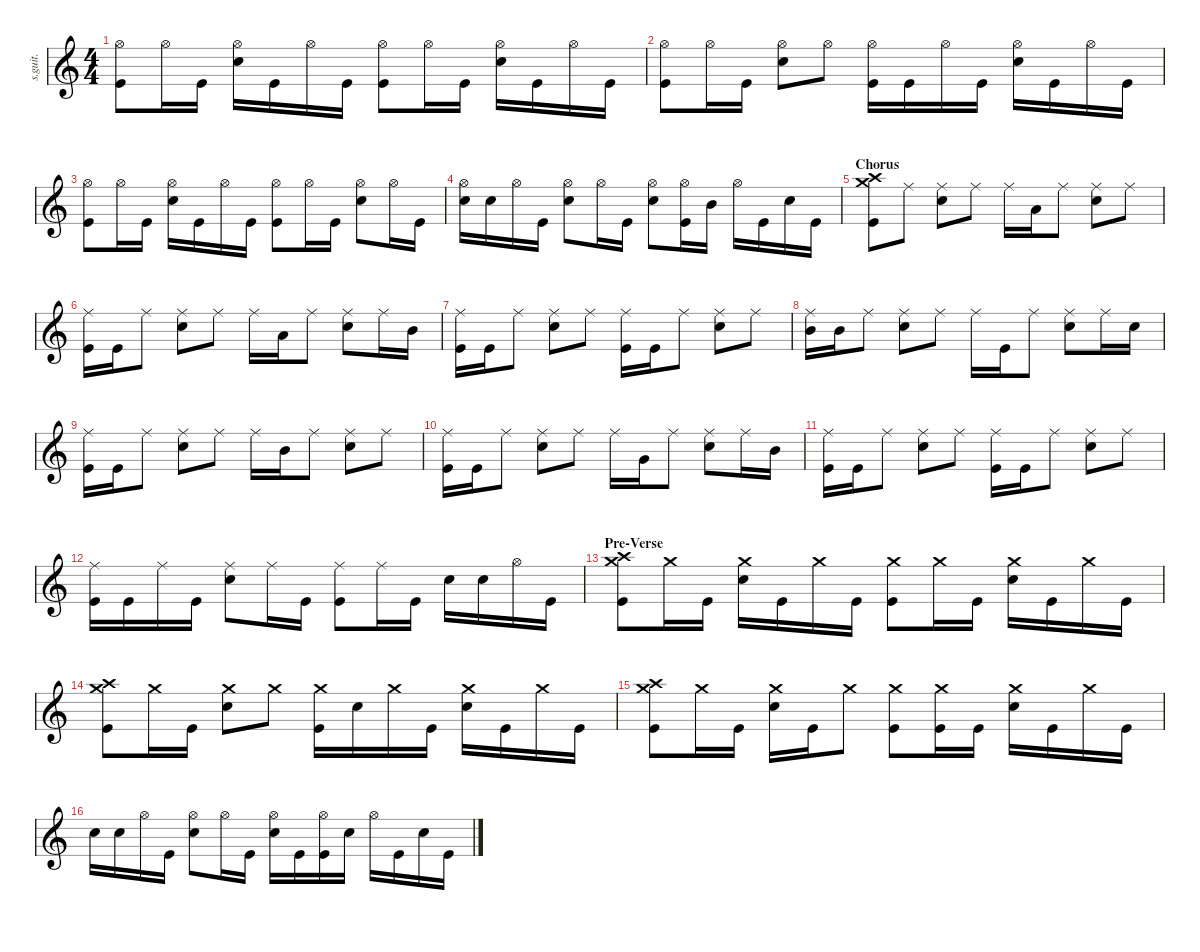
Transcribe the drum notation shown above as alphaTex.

\defaultSystemsLayout 4
\hideDynamics
\bracketExtendMode nobrackets
\track ("Abe Cunningham" "s.guit.") {instrument percussion}
\staff {score}
\articulation defaults
\ts (4 4)
\tempo (93 hide)
\clef g2
\ks c
("Kick (hit)" "Hi-Hat (open)").8{lyrics (0 "") lyrics (1 "") lyrics (2 "") lyrics (3 "") lyrics (4 "") dy fff} "Hi-Hat (open)".16{lyrics (0 "") lyrics (1 "") lyrics (2 "") lyrics (3 "") lyrics (4 "")} "Kick (hit)".16{lyrics (0 "") lyrics (1 "") lyrics (2 "") lyrics (3 "") lyrics (4 "")} ("Snare (hit) 2" "Hi-Hat (open)").16{lyrics (0 "") lyrics (1 "") lyrics (2 "") lyrics (3 "") lyrics (4 "")} "Kick (hit)".16{lyrics (0 "") lyrics (1 "") lyrics (2 "") lyrics (3 "") lyrics (4 "")} "Hi-Hat (open)".16{lyrics (0 "") lyrics (1 "") lyrics (2 "") lyrics (3 "") lyrics (4 "")} "Kick (hit)".16{lyrics (0 "") lyrics (1 "") lyrics (2 "") lyrics (3 "") lyrics (4 "")} ("Hi-Hat (open)" "Kick (hit)").8{lyrics (0 "") lyrics (1 "") lyrics (2 "") lyrics (3 "") lyrics (4 "")} "Hi-Hat (open)".16{lyrics (0 "") lyrics (1 "") lyrics (2 "") lyrics (3 "") lyrics (4 "")} "Kick (hit)".16{lyrics (0 "") lyrics (1 "") lyrics (2 "") lyrics (3 "") lyrics (4 "")} ("Hi-Hat (open)" "Snare (hit) 2").16{lyrics (0 "") lyrics (1 "") lyrics (2 "") lyrics (3 "") lyrics (4 "")} "Kick (hit)".16{lyrics (0 "") lyrics (1 "") lyrics (2 "") lyrics (3 "") lyrics (4 "")} "Hi-Hat (open)".16{lyrics (0 "") lyrics (1 "") lyrics (2 "") lyrics (3 "") lyrics (4 "")} "Kick (hit)".16{lyrics (0 "") lyrics (1 "") lyrics (2 "") lyrics (3 "") lyrics (4 "")} |
("Kick (hit)" "Hi-Hat (open)").8{lyrics (0 "") lyrics (1 "") lyrics (2 "") lyrics (3 "") lyrics (4 "")} "Hi-Hat (open)".16{lyrics (0 "") lyrics (1 "") lyrics (2 "") lyrics (3 "") lyrics (4 "")} "Kick (hit)".16{lyrics (0 "") lyrics (1 "") lyrics (2 "") lyrics (3 "") lyrics (4 "")} ("Snare (hit) 2" "Hi-Hat (open)").8{lyrics (0 "") lyrics (1 "") lyrics (2 "") lyrics (3 "") lyrics (4 "")} "Hi-Hat (open)".8{lyrics (0 "") lyrics (1 "") lyrics (2 "") lyrics (3 "") lyrics (4 "")} ("Hi-Hat (open)" "Kick (hit)").16{lyrics (0 "") lyrics (1 "") lyrics (2 "") lyrics (3 "") lyrics (4 "")} "Kick (hit)".16{lyrics (0 "") lyrics (1 "") lyrics (2 "") lyrics (3 "") lyrics (4 "")} "Hi-Hat (open)".16{lyrics (0 "") lyrics (1 "") lyrics (2 "") lyrics (3 "") lyrics (4 "")} "Kick (hit)".16{lyrics (0 "") lyrics (1 "") lyrics (2 "") lyrics (3 "") lyrics (4 "")} ("Hi-Hat (open)" "Snare (hit) 2").16{lyrics (0 "") lyrics (1 "") lyrics (2 "") lyrics (3 "") lyrics (4 "")} "Kick (hit)".16{lyrics (0 "") lyrics (1 "") lyrics (2 "") lyrics (3 "") lyrics (4 "")} "Hi-Hat (open)".16{lyrics (0 "") lyrics (1 "") lyrics (2 "") lyrics (3 "") lyrics (4 "")} "Kick (hit)".16{lyrics (0 "") lyrics (1 "") lyrics (2 "") lyrics (3 "") lyrics (4 "")} |
("Kick (hit)" "Hi-Hat (open)").8{lyrics (0 "") lyrics (1 "") lyrics (2 "") lyrics (3 "") lyrics (4 "")} "Hi-Hat (open)".16{lyrics (0 "") lyrics (1 "") lyrics (2 "") lyrics (3 "") lyrics (4 "")} "Kick (hit)".16{lyrics (0 "") lyrics (1 "") lyrics (2 "") lyrics (3 "") lyrics (4 "")} ("Snare (hit) 2" "Hi-Hat (open)").16{lyrics (0 "") lyrics (1 "") lyrics (2 "") lyrics (3 "") lyrics (4 "")} "Kick (hit)".16{lyrics (0 "") lyrics (1 "") lyrics (2 "") lyrics (3 "") lyrics (4 "")} "Hi-Hat (open)".16{lyrics (0 "") lyrics (1 "") lyrics (2 "") lyrics (3 "") lyrics (4 "")} "Kick (hit)".16{lyrics (0 "") lyrics (1 "") lyrics (2 "") lyrics (3 "") lyrics (4 "")} ("Hi-Hat (open)" "Kick (hit)").8{lyrics (0 "") lyrics (1 "") lyrics (2 "") lyrics (3 "") lyrics (4 "")} "Hi-Hat (open)".16{lyrics (0 "") lyrics (1 "") lyrics (2 "") lyrics (3 "") lyrics (4 "")} "Kick (hit)".16{lyrics (0 "") lyrics (1 "") lyrics (2 "") lyrics (3 "") lyrics (4 "")} ("Hi-Hat (open)" "Snare (hit) 2").8{lyrics (0 "") lyrics (1 "") lyrics (2 "") lyrics (3 "") lyrics (4 "")} "Hi-Hat (open)".16{lyrics (0 "") lyrics (1 "") lyrics (2 "") lyrics (3 "") lyrics (4 "")} "Kick (hit)".16{lyrics (0 "") lyrics (1 "") lyrics (2 "") lyrics (3 "") lyrics (4 "")} |
("Snare (hit) 2" "Hi-Hat (open)").16{lyrics (0 "") lyrics (1 "") lyrics (2 "") lyrics (3 "") lyrics (4 "")} "Snare (hit) 2".16{lyrics (0 "") lyrics (1 "") lyrics (2 "") lyrics (3 "") lyrics (4 "")} "Hi-Hat (open)".16{lyrics (0 "") lyrics (1 "") lyrics (2 "") lyrics (3 "") lyrics (4 "")} "Kick (hit)".16{lyrics (0 "") lyrics (1 "") lyrics (2 "") lyrics (3 "") lyrics (4 "")} ("Hi-Hat (open)" "Snare (hit) 2").8{lyrics (0 "") lyrics (1 "") lyrics (2 "") lyrics (3 "") lyrics (4 "")} "Hi-Hat (open)".16{lyrics (0 "") lyrics (1 "") lyrics (2 "") lyrics (3 "") lyrics (4 "")} "Kick (hit)".16{lyrics (0 "") lyrics (1 "") lyrics (2 "") lyrics (3 "") lyrics (4 "")} ("Hi-Hat (open)" "Snare (hit) 2").8{lyrics (0 "") lyrics (1 "") lyrics (2 "") lyrics (3 "") lyrics (4 "")} ("Kick (hit)" "Hi-Hat (open)").16{lyrics (0 "") lyrics (1 "") lyrics (2 "") lyrics (3 "") lyrics (4 "")} "Mid Tom (hit)".16{lyrics (0 "") lyrics (1 "") lyrics (2 "") lyrics (3 "") lyrics (4 "")} "Hi-Hat (open)".16{lyrics (0 "") lyrics (1 "") lyrics (2 "") lyrics (3 "") lyrics (4 "")} "Kick (hit)".16{lyrics (0 "") lyrics (1 "") lyrics (2 "") lyrics (3 "") lyrics (4 "")} "Snare (hit) 2".16{lyrics (0 "") lyrics (1 "") lyrics (2 "") lyrics (3 "") lyrics (4 "")} "Kick (hit)".16{lyrics (0 "") lyrics (1 "") lyrics (2 "") lyrics (3 "") lyrics (4 "")} |
\section ("" "Chorus")
("Kick (hit)" "Crash high (hit)" "Crash medium (hit)").8{lyrics (0 "") lyrics (1 "") lyrics (2 "") lyrics (3 "") lyrics (4 "")} "Ride (middle)".8{lyrics (0 "") lyrics (1 "") lyrics (2 "") lyrics (3 "") lyrics (4 "")} ("Ride (middle)" "Snare (hit) 2").8{lyrics (0 "") lyrics (1 "") lyrics (2 "") lyrics (3 "") lyrics (4 "")} "Ride (middle)".8{lyrics (0 "") lyrics (1 "") lyrics (2 "") lyrics (3 "") lyrics (4 "")} "Ride (middle)".16{lyrics (0 "") lyrics (1 "") lyrics (2 "") lyrics (3 "") lyrics (4 "")} "Low Tom (hit)".16{lyrics (0 "") lyrics (1 "") lyrics (2 "") lyrics (3 "") lyrics (4 "")} "Ride (middle)".8{lyrics (0 "") lyrics (1 "") lyrics (2 "") lyrics (3 "") lyrics (4 "")} ("Ride (middle)" "Snare (hit) 2").8{lyrics (0 "") lyrics (1 "") lyrics (2 "") lyrics (3 "") lyrics (4 "")} "Ride (middle)".8{lyrics (0 "") lyrics (1 "") lyrics (2 "") lyrics (3 "") lyrics (4 "")} |
("Kick (hit)" "Ride (middle)").16{lyrics (0 "") lyrics (1 "") lyrics (2 "") lyrics (3 "") lyrics (4 "")} "Kick (hit)".16{lyrics (0 "") lyrics (1 "") lyrics (2 "") lyrics (3 "") lyrics (4 "")} "Ride (middle)".8{lyrics (0 "") lyrics (1 "") lyrics (2 "") lyrics (3 "") lyrics (4 "")} ("Ride (middle)" "Snare (hit) 2").8{lyrics (0 "") lyrics (1 "") lyrics (2 "") lyrics (3 "") lyrics (4 "")} "Ride (middle)".8{lyrics (0 "") lyrics (1 "") lyrics (2 "") lyrics (3 "") lyrics (4 "")} "Ride (middle)".16{lyrics (0 "") lyrics (1 "") lyrics (2 "") lyrics (3 "") lyrics (4 "")} "Low Tom (hit)".16{lyrics (0 "") lyrics (1 "") lyrics (2 "") lyrics (3 "") lyrics (4 "")} "Ride (middle)".8{lyrics (0 "") lyrics (1 "") lyrics (2 "") lyrics (3 "") lyrics (4 "")} ("Ride (middle)" "Snare (hit) 2").8{lyrics (0 "") lyrics (1 "") lyrics (2 "") lyrics (3 "") lyrics (4 "")} "Ride (middle)".16{lyrics (0 "") lyrics (1 "") lyrics (2 "") lyrics (3 "") lyrics (4 "")} "Mid Tom (hit)".16{lyrics (0 "") lyrics (1 "") lyrics (2 "") lyrics (3 "") lyrics (4 "")} |
("Kick (hit)" "Ride (middle)").16{lyrics (0 "") lyrics (1 "") lyrics (2 "") lyrics (3 "") lyrics (4 "")} "Kick (hit)".16{lyrics (0 "") lyrics (1 "") lyrics (2 "") lyrics (3 "") lyrics (4 "")} "Ride (middle)".8{lyrics (0 "") lyrics (1 "") lyrics (2 "") lyrics (3 "") lyrics (4 "")} ("Ride (middle)" "Snare (hit) 2").8{lyrics (0 "") lyrics (1 "") lyrics (2 "") lyrics (3 "") lyrics (4 "")} "Ride (middle)".8{lyrics (0 "") lyrics (1 "") lyrics (2 "") lyrics (3 "") lyrics (4 "")} ("Ride (middle)" "Kick (hit)").16{lyrics (0 "") lyrics (1 "") lyrics (2 "") lyrics (3 "") lyrics (4 "")} "Kick (hit)".16{lyrics (0 "") lyrics (1 "") lyrics (2 "") lyrics (3 "") lyrics (4 "")} "Ride (middle)".8{lyrics (0 "") lyrics (1 "") lyrics (2 "") lyrics (3 "") lyrics (4 "")} ("Ride (middle)" "Snare (hit) 2").8{lyrics (0 "") lyrics (1 "") lyrics (2 "") lyrics (3 "") lyrics (4 "")} "Ride (middle)".8{lyrics (0 "") lyrics (1 "") lyrics (2 "") lyrics (3 "") lyrics (4 "")} |
("Ride (middle)" "Mid Tom (hit)").16{lyrics (0 "") lyrics (1 "") lyrics (2 "") lyrics (3 "") lyrics (4 "")} "Mid Tom (hit)".16{lyrics (0 "") lyrics (1 "") lyrics (2 "") lyrics (3 "") lyrics (4 "")} "Ride (middle)".8{lyrics (0 "") lyrics (1 "") lyrics (2 "") lyrics (3 "") lyrics (4 "")} ("Ride (middle)" "Snare (hit) 2").8{lyrics (0 "") lyrics (1 "") lyrics (2 "") lyrics (3 "") lyrics (4 "")} "Ride (middle)".8{lyrics (0 "") lyrics (1 "") lyrics (2 "") lyrics (3 "") lyrics (4 "")} "Ride (middle)".16{lyrics (0 "") lyrics (1 "") lyrics (2 "") lyrics (3 "") lyrics (4 "")} "Kick (hit)".16{lyrics (0 "") lyrics (1 "") lyrics (2 "") lyrics (3 "") lyrics (4 "")} "Ride (middle)".8{lyrics (0 "") lyrics (1 "") lyrics (2 "") lyrics (3 "") lyrics (4 "")} ("Ride (middle)" "Snare (hit) 2").8{lyrics (0 "") lyrics (1 "") lyrics (2 "") lyrics (3 "") lyrics (4 "")} "Ride (middle)".16{lyrics (0 "") lyrics (1 "") lyrics (2 "") lyrics (3 "") lyrics (4 "")} "Snare (hit) 2".16{lyrics (0 "") lyrics (1 "") lyrics (2 "") lyrics (3 "") lyrics (4 "")} |
("Kick (hit)" "Ride (middle)").16{lyrics (0 "") lyrics (1 "") lyrics (2 "") lyrics (3 "") lyrics (4 "")} "Kick (hit)".16{lyrics (0 "") lyrics (1 "") lyrics (2 "") lyrics (3 "") lyrics (4 "")} "Ride (middle)".8{lyrics (0 "") lyrics (1 "") lyrics (2 "") lyrics (3 "") lyrics (4 "")} ("Ride (middle)" "Snare (hit) 2").8{lyrics (0 "") lyrics (1 "") lyrics (2 "") lyrics (3 "") lyrics (4 "")} "Ride (middle)".8{lyrics (0 "") lyrics (1 "") lyrics (2 "") lyrics (3 "") lyrics (4 "")} "Ride (middle)".16{lyrics (0 "") lyrics (1 "") lyrics (2 "") lyrics (3 "") lyrics (4 "")} "Mid Tom (hit)".16{lyrics (0 "") lyrics (1 "") lyrics (2 "") lyrics (3 "") lyrics (4 "")} "Ride (middle)".8{lyrics (0 "") lyrics (1 "") lyrics (2 "") lyrics (3 "") lyrics (4 "")} ("Ride (middle)" "Snare (hit) 2").8{lyrics (0 "") lyrics (1 "") lyrics (2 "") lyrics (3 "") lyrics (4 "")} "Ride (middle)".8{lyrics (0 "") lyrics (1 "") lyrics (2 "") lyrics (3 "") lyrics (4 "")} |
("Kick (hit)" "Ride (middle)").16{lyrics (0 "") lyrics (1 "") lyrics (2 "") lyrics (3 "") lyrics (4 "")} "Kick (hit)".16{lyrics (0 "") lyrics (1 "") lyrics (2 "") lyrics (3 "") lyrics (4 "")} "Ride (middle)".8{lyrics (0 "") lyrics (1 "") lyrics (2 "") lyrics (3 "") lyrics (4 "")} ("Ride (middle)" "Snare (hit) 2").8{lyrics (0 "") lyrics (1 "") lyrics (2 "") lyrics (3 "") lyrics (4 "")} "Ride (middle)".8{lyrics (0 "") lyrics (1 "") lyrics (2 "") lyrics (3 "") lyrics (4 "")} "Ride (middle)".16{lyrics (0 "") lyrics (1 "") lyrics (2 "") lyrics (3 "") lyrics (4 "")} "Very Low Tom (hit)".16{lyrics (0 "") lyrics (1 "") lyrics (2 "") lyrics (3 "") lyrics (4 "")} "Ride (middle)".8{lyrics (0 "") lyrics (1 "") lyrics (2 "") lyrics (3 "") lyrics (4 "")} ("Ride (middle)" "Snare (hit) 2").8{lyrics (0 "") lyrics (1 "") lyrics (2 "") lyrics (3 "") lyrics (4 "")} "Ride (middle)".16{lyrics (0 "") lyrics (1 "") lyrics (2 "") lyrics (3 "") lyrics (4 "")} "Mid Tom (hit)".16{lyrics (0 "") lyrics (1 "") lyrics (2 "") lyrics (3 "") lyrics (4 "")} |
("Kick (hit)" "Ride (middle)").16{lyrics (0 "") lyrics (1 "") lyrics (2 "") lyrics (3 "") lyrics (4 "")} "Kick (hit)".16{lyrics (0 "") lyrics (1 "") lyrics (2 "") lyrics (3 "") lyrics (4 "")} "Ride (middle)".8{lyrics (0 "") lyrics (1 "") lyrics (2 "") lyrics (3 "") lyrics (4 "")} ("Ride (middle)" "Snare (hit) 2").8{lyrics (0 "") lyrics (1 "") lyrics (2 "") lyrics (3 "") lyrics (4 "")} "Ride (middle)".8{lyrics (0 "") lyrics (1 "") lyrics (2 "") lyrics (3 "") lyrics (4 "")} ("Ride (middle)" "Kick (hit)").16{lyrics (0 "") lyrics (1 "") lyrics (2 "") lyrics (3 "") lyrics (4 "")} "Kick (hit)".16{lyrics (0 "") lyrics (1 "") lyrics (2 "") lyrics (3 "") lyrics (4 "")} "Ride (middle)".8{lyrics (0 "") lyrics (1 "") lyrics (2 "") lyrics (3 "") lyrics (4 "")} ("Ride (middle)" "Snare (hit) 2").8{lyrics (0 "") lyrics (1 "") lyrics (2 "") lyrics (3 "") lyrics (4 "")} "Ride (middle)".8{lyrics (0 "") lyrics (1 "") lyrics (2 "") lyrics (3 "") lyrics (4 "")} |
("Kick (hit)" "Ride (middle)").16{lyrics (0 "") lyrics (1 "") lyrics (2 "") lyrics (3 "") lyrics (4 "")} "Kick (hit)".16{lyrics (0 "") lyrics (1 "") lyrics (2 "") lyrics (3 "") lyrics (4 "")} "Ride (middle)".16{lyrics (0 "") lyrics (1 "") lyrics (2 "") lyrics (3 "") lyrics (4 "")} "Kick (hit)".16{lyrics (0 "") lyrics (1 "") lyrics (2 "") lyrics (3 "") lyrics (4 "")} ("Ride (middle)" "Snare (hit) 2").8{lyrics (0 "") lyrics (1 "") lyrics (2 "") lyrics (3 "") lyrics (4 "")} "Ride (middle)".16{lyrics (0 "") lyrics (1 "") lyrics (2 "") lyrics (3 "") lyrics (4 "")} "Kick (hit)".16{lyrics (0 "") lyrics (1 "") lyrics (2 "") lyrics (3 "") lyrics (4 "")} ("Ride (middle)" "Kick (hit)").8{lyrics (0 "") lyrics (1 "") lyrics (2 "") lyrics (3 "") lyrics (4 "")} "Ride (middle)".16{lyrics (0 "") lyrics (1 "") lyrics (2 "") lyrics (3 "") lyrics (4 "")} "Kick (hit)".16{lyrics (0 "") lyrics (1 "") lyrics (2 "") lyrics (3 "") lyrics (4 "")} "Snare (hit) 2".16{lyrics (0 "") lyrics (1 "") lyrics (2 "") lyrics (3 "") lyrics (4 "")} "Snare (hit) 2".16{lyrics (0 "") lyrics (1 "") lyrics (2 "") lyrics (3 "") lyrics (4 "")} "Hi-Hat (open)".16{lyrics (0 "") lyrics (1 "") lyrics (2 "") lyrics (3 "") lyrics (4 "")} "Kick (hit)".16{lyrics (0 "") lyrics (1 "") lyrics (2 "") lyrics (3 "") lyrics (4 "")} |
\section ("" "Pre-Verse")
("Kick (hit)" "Crash high (hit)" "Crash medium (hit)").8{lyrics (0 "") lyrics (1 "") lyrics (2 "") lyrics (3 "") lyrics (4 "")} "Crash medium (hit)".16{lyrics (0 "") lyrics (1 "") lyrics (2 "") lyrics (3 "") lyrics (4 "")} "Kick (hit)".16{lyrics (0 "") lyrics (1 "") lyrics (2 "") lyrics (3 "") lyrics (4 "")} ("Snare (hit) 2" "Crash medium (hit)").16{lyrics (0 "") lyrics (1 "") lyrics (2 "") lyrics (3 "") lyrics (4 "")} "Kick (hit)".16{lyrics (0 "") lyrics (1 "") lyrics (2 "") lyrics (3 "") lyrics (4 "")} "Crash medium (hit)".16{lyrics (0 "") lyrics (1 "") lyrics (2 "") lyrics (3 "") lyrics (4 "")} "Kick (hit)".16{lyrics (0 "") lyrics (1 "") lyrics (2 "") lyrics (3 "") lyrics (4 "")} ("Kick (hit)" "Crash medium (hit)").8{lyrics (0 "") lyrics (1 "") lyrics (2 "") lyrics (3 "") lyrics (4 "")} "Crash medium (hit)".16{lyrics (0 "") lyrics (1 "") lyrics (2 "") lyrics (3 "") lyrics (4 "")} "Kick (hit)".16{lyrics (0 "") lyrics (1 "") lyrics (2 "") lyrics (3 "") lyrics (4 "")} ("Snare (hit) 2" "Crash medium (hit)").16{lyrics (0 "") lyrics (1 "") lyrics (2 "") lyrics (3 "") lyrics (4 "")} "Kick (hit)".16{lyrics (0 "") lyrics (1 "") lyrics (2 "") lyrics (3 "") lyrics (4 "")} "Crash medium (hit)".16{lyrics (0 "") lyrics (1 "") lyrics (2 "") lyrics (3 "") lyrics (4 "")} "Kick (hit)".16{lyrics (0 "") lyrics (1 "") lyrics (2 "") lyrics (3 "") lyrics (4 "")} |
("Kick (hit)" "Crash medium (hit)" "Crash high (hit)").8{lyrics (0 "") lyrics (1 "") lyrics (2 "") lyrics (3 "") lyrics (4 "")} "Crash medium (hit)".16{lyrics (0 "") lyrics (1 "") lyrics (2 "") lyrics (3 "") lyrics (4 "")} "Kick (hit)".16{lyrics (0 "") lyrics (1 "") lyrics (2 "") lyrics (3 "") lyrics (4 "")} ("Snare (hit) 2" "Crash medium (hit)").8{lyrics (0 "") lyrics (1 "") lyrics (2 "") lyrics (3 "") lyrics (4 "")} "Crash medium (hit)".8{lyrics (0 "") lyrics (1 "") lyrics (2 "") lyrics (3 "") lyrics (4 "")} ("Crash medium (hit)" "Kick (hit)").16{lyrics (0 "") lyrics (1 "") lyrics (2 "") lyrics (3 "") lyrics (4 "")} "Snare (hit) 2".16{lyrics (0 "") lyrics (1 "") lyrics (2 "") lyrics (3 "") lyrics (4 "")} "Crash medium (hit)".16{lyrics (0 "") lyrics (1 "") lyrics (2 "") lyrics (3 "") lyrics (4 "")} "Kick (hit)".16{lyrics (0 "") lyrics (1 "") lyrics (2 "") lyrics (3 "") lyrics (4 "")} ("Snare (hit) 2" "Crash medium (hit)").16{lyrics (0 "") lyrics (1 "") lyrics (2 "") lyrics (3 "") lyrics (4 "")} "Kick (hit)".16{lyrics (0 "") lyrics (1 "") lyrics (2 "") lyrics (3 "") lyrics (4 "")} "Crash medium (hit)".16{lyrics (0 "") lyrics (1 "") lyrics (2 "") lyrics (3 "") lyrics (4 "")} "Kick (hit)".16{lyrics (0 "") lyrics (1 "") lyrics (2 "") lyrics (3 "") lyrics (4 "")} |
("Kick (hit)" "Crash high (hit)" "Crash medium (hit)").8{lyrics (0 "") lyrics (1 "") lyrics (2 "") lyrics (3 "") lyrics (4 "")} "Crash medium (hit)".16{lyrics (0 "") lyrics (1 "") lyrics (2 "") lyrics (3 "") lyrics (4 "")} "Kick (hit)".16{lyrics (0 "") lyrics (1 "") lyrics (2 "") lyrics (3 "") lyrics (4 "")} ("Snare (hit) 2" "Crash medium (hit)").16{lyrics (0 "") lyrics (1 "") lyrics (2 "") lyrics (3 "") lyrics (4 "")} "Kick (hit)".16{lyrics (0 "") lyrics (1 "") lyrics (2 "") lyrics (3 "") lyrics (4 "")} "Crash medium (hit)".8{lyrics (0 "") lyrics (1 "") lyrics (2 "") lyrics (3 "") lyrics (4 "")} ("Crash medium (hit)" "Kick (hit)").8{lyrics (0 "") lyrics (1 "") lyrics (2 "") lyrics (3 "") lyrics (4 "")} ("Crash medium (hit)" "Kick (hit)").16{lyrics (0 "") lyrics (1 "") lyrics (2 "") lyrics (3 "") lyrics (4 "")} "Kick (hit)".16{lyrics (0 "") lyrics (1 "") lyrics (2 "") lyrics (3 "") lyrics (4 "")} ("Snare (hit) 2" "Crash medium (hit)").16{lyrics (0 "") lyrics (1 "") lyrics (2 "") lyrics (3 "") lyrics (4 "")} "Kick (hit)".16{lyrics (0 "") lyrics (1 "") lyrics (2 "") lyrics (3 "") lyrics (4 "")} "Crash medium (hit)".16{lyrics (0 "") lyrics (1 "") lyrics (2 "") lyrics (3 "") lyrics (4 "")} "Kick (hit)".16{lyrics (0 "") lyrics (1 "") lyrics (2 "") lyrics (3 "") lyrics (4 "")} |
"Snare (hit) 2".16{lyrics (0 "") lyrics (1 "") lyrics (2 "") lyrics (3 "") lyrics (4 "")} "Snare (hit) 2".16{lyrics (0 "") lyrics (1 "") lyrics (2 "") lyrics (3 "") lyrics (4 "")} "Hi-Hat (open)".16{lyrics (0 "") lyrics (1 "") lyrics (2 "") lyrics (3 "") lyrics (4 "")} "Kick (hit)".16{lyrics (0 "") lyrics (1 "") lyrics (2 "") lyrics (3 "") lyrics (4 "")} ("Snare (hit) 2" "Hi-Hat (open)").8{lyrics (0 "") lyrics (1 "") lyrics (2 "") lyrics (3 "") lyrics (4 "")} "Hi-Hat (open)".16{lyrics (0 "") lyrics (1 "") lyrics (2 "") lyrics (3 "") lyrics (4 "")} "Kick (hit)".16{lyrics (0 "") lyrics (1 "") lyrics (2 "") lyrics (3 "") lyrics (4 "")} ("Snare (hit) 2" "Hi-Hat (open)").16{lyrics (0 "") lyrics (1 "") lyrics (2 "") lyrics (3 "") lyrics (4 "")} "Kick (hit)".16{lyrics (0 "") lyrics (1 "") lyrics (2 "") lyrics (3 "") lyrics (4 "")} ("Kick (hit)" "Hi-Hat (open)").16{lyrics (0 "") lyrics (1 "") lyrics (2 "") lyrics (3 "") lyrics (4 "")} "Snare (hit) 2".16{lyrics (0 "") lyrics (1 "") lyrics (2 "") lyrics (3 "") lyrics (4 "")} "Hi-Hat (open)".16{lyrics (0 "") lyrics (1 "") lyrics (2 "") lyrics (3 "") lyrics (4 "")} "Kick (hit)".16{lyrics (0 "") lyrics (1 "") lyrics (2 "") lyrics (3 "") lyrics (4 "")} "Snare (hit) 2".16{lyrics (0 "") lyrics (1 "") lyrics (2 "") lyrics (3 "") lyrics (4 "")} "Kick (hit)".16{lyrics (0 "") lyrics (1 "") lyrics (2 "") lyrics (3 "") lyrics (4 "")}
